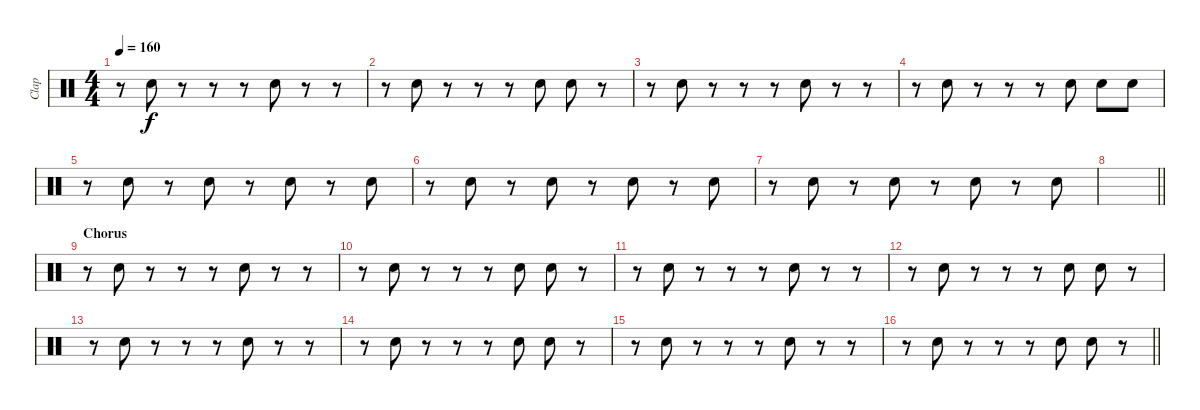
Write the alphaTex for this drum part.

\track ("Clap" "Clap") {instrument percussion}
\staff {score}
\articulation defaults
\ts (4 4)
\tempo 160
\clef neutral
\ks c
r.8{dy f} "Hand Clap (hit)".8 r.8 r.8 r.8 "Hand Clap (hit)".8 r.8 r.8 |
r.8 "Hand Clap (hit)".8 r.8 r.8 r.8 "Hand Clap (hit)".8 "Hand Clap (hit)".8 r.8 |
r.8 "Hand Clap (hit)".8 r.8 r.8 r.8 "Hand Clap (hit)".8 r.8 r.8 |
r.8 "Hand Clap (hit)".8 r.8 r.8 r.8 "Hand Clap (hit)".8 "Hand Clap (hit)".8 "Hand Clap (hit)".8 |
r.8 "Hand Clap (hit)".8 r.8 "Hand Clap (hit)".8 r.8 "Hand Clap (hit)".8 r.8 "Hand Clap (hit)".8 |
r.8 "Hand Clap (hit)".8 r.8 "Hand Clap (hit)".8 r.8 "Hand Clap (hit)".8 r.8 "Hand Clap (hit)".8 |
r.8 "Hand Clap (hit)".8 r.8 "Hand Clap (hit)".8 r.8 "Hand Clap (hit)".8 r.8 "Hand Clap (hit)".8 |
\barLineRight lightlight
|
\section ("" "Chorus")
r.8 "Hand Clap (hit)".8 r.8 r.8 r.8 "Hand Clap (hit)".8 r.8 r.8 |
r.8 "Hand Clap (hit)".8 r.8 r.8 r.8 "Hand Clap (hit)".8 "Hand Clap (hit)".8 r.8 |
r.8 "Hand Clap (hit)".8 r.8 r.8 r.8 "Hand Clap (hit)".8 r.8 r.8 |
r.8 "Hand Clap (hit)".8 r.8 r.8 r.8 "Hand Clap (hit)".8 "Hand Clap (hit)".8 r.8 |
r.8 "Hand Clap (hit)".8 r.8 r.8 r.8 "Hand Clap (hit)".8 r.8 r.8 |
r.8 "Hand Clap (hit)".8 r.8 r.8 r.8 "Hand Clap (hit)".8 "Hand Clap (hit)".8 r.8 |
r.8 "Hand Clap (hit)".8 r.8 r.8 r.8 "Hand Clap (hit)".8 r.8 r.8 |
\barLineRight lightlight
r.8 "Hand Clap (hit)".8 r.8 r.8 r.8 "Hand Clap (hit)".8 "Hand Clap (hit)".8 r.8
